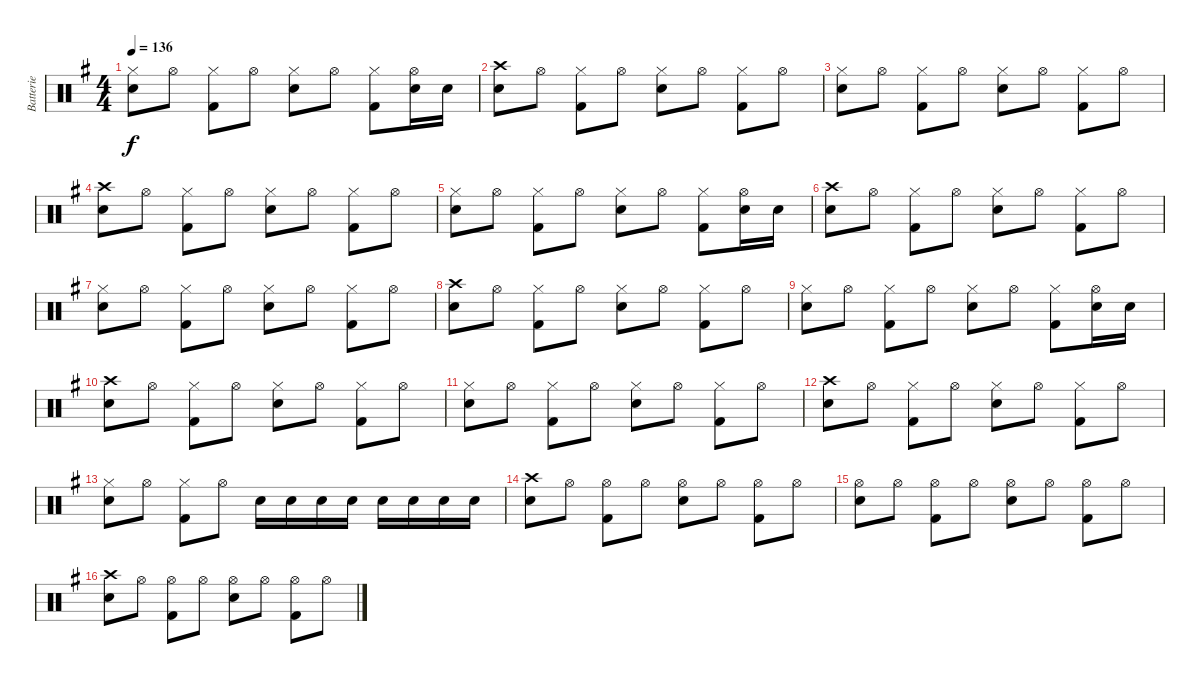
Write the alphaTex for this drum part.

\track ("Batterie" "Batterie") {instrument percussion}
\staff {score}
\articulation defaults
\ts (4 4)
\tempo 136
\clef neutral
\ks g
("Hi-Hat (closed)" "Snare (hit) 2").8{dy f} "Hi-Hat (open)".8 ("Hi-Hat (closed)" "Kick (hit) 2").8 "Hi-Hat (open)".8 ("Hi-Hat (closed)" "Snare (hit) 2").8 "Hi-Hat (open)".8 ("Hi-Hat (closed)" "Kick (hit) 2").8 ("Hi-Hat (open)" "Snare (hit) 2").16 "Snare (hit) 2".16 |
("Crash high (hit)" "Snare (hit) 2").8 "Hi-Hat (open)".8 ("Hi-Hat (closed)" "Kick (hit) 2").8 "Hi-Hat (open)".8 ("Hi-Hat (closed)" "Snare (hit) 2").8 "Hi-Hat (open)".8 ("Hi-Hat (closed)" "Kick (hit) 2").8 "Hi-Hat (open)".8 |
("Hi-Hat (closed)" "Snare (hit) 2").8 "Hi-Hat (open)".8 ("Hi-Hat (closed)" "Kick (hit) 2").8 "Hi-Hat (open)".8 ("Hi-Hat (closed)" "Snare (hit) 2").8 "Hi-Hat (open)".8 ("Hi-Hat (closed)" "Kick (hit) 2").8 "Hi-Hat (open)".8 |
("Crash high (hit)" "Snare (hit) 2").8 "Hi-Hat (open)".8 ("Hi-Hat (closed)" "Kick (hit) 2").8 "Hi-Hat (open)".8 ("Hi-Hat (closed)" "Snare (hit) 2").8 "Hi-Hat (open)".8 ("Hi-Hat (closed)" "Kick (hit) 2").8 "Hi-Hat (open)".8 |
("Hi-Hat (closed)" "Snare (hit) 2").8 "Hi-Hat (open)".8 ("Hi-Hat (closed)" "Kick (hit) 2").8 "Hi-Hat (open)".8 ("Hi-Hat (closed)" "Snare (hit) 2").8 "Hi-Hat (open)".8 ("Hi-Hat (closed)" "Kick (hit) 2").8 ("Hi-Hat (open)" "Snare (hit) 2").16 "Snare (hit) 2".16 |
("Crash high (hit)" "Snare (hit) 2").8 "Hi-Hat (open)".8 ("Hi-Hat (closed)" "Kick (hit) 2").8 "Hi-Hat (open)".8 ("Hi-Hat (closed)" "Snare (hit) 2").8 "Hi-Hat (open)".8 ("Hi-Hat (closed)" "Kick (hit) 2").8 "Hi-Hat (open)".8 |
("Hi-Hat (closed)" "Snare (hit) 2").8 "Hi-Hat (open)".8 ("Hi-Hat (closed)" "Kick (hit) 2").8 "Hi-Hat (open)".8 ("Hi-Hat (closed)" "Snare (hit) 2").8 "Hi-Hat (open)".8 ("Hi-Hat (closed)" "Kick (hit) 2").8 "Hi-Hat (open)".8 |
("Crash high (hit)" "Snare (hit) 2").8 "Hi-Hat (open)".8 ("Hi-Hat (closed)" "Kick (hit) 2").8 "Hi-Hat (open)".8 ("Hi-Hat (closed)" "Snare (hit) 2").8 "Hi-Hat (open)".8 ("Hi-Hat (closed)" "Kick (hit) 2").8 "Hi-Hat (open)".8 |
("Hi-Hat (closed)" "Snare (hit) 2").8 "Hi-Hat (open)".8 ("Hi-Hat (closed)" "Kick (hit) 2").8 "Hi-Hat (open)".8 ("Hi-Hat (closed)" "Snare (hit) 2").8 "Hi-Hat (open)".8 ("Hi-Hat (closed)" "Kick (hit) 2").8 ("Hi-Hat (open)" "Snare (hit) 2").16 "Snare (hit) 2".16 |
("Crash high (hit)" "Snare (hit) 2").8 "Hi-Hat (open)".8 ("Hi-Hat (closed)" "Kick (hit) 2").8 "Hi-Hat (open)".8 ("Hi-Hat (closed)" "Snare (hit) 2").8 "Hi-Hat (open)".8 ("Hi-Hat (closed)" "Kick (hit) 2").8 "Hi-Hat (open)".8 |
("Hi-Hat (closed)" "Snare (hit) 2").8 "Hi-Hat (open)".8 ("Hi-Hat (closed)" "Kick (hit) 2").8 "Hi-Hat (open)".8 ("Hi-Hat (closed)" "Snare (hit) 2").8 "Hi-Hat (open)".8 ("Hi-Hat (closed)" "Kick (hit) 2").8 "Hi-Hat (open)".8 |
("Crash high (hit)" "Snare (hit) 2").8 "Hi-Hat (open)".8 ("Hi-Hat (closed)" "Kick (hit) 2").8 "Hi-Hat (open)".8 ("Hi-Hat (closed)" "Snare (hit) 2").8 "Hi-Hat (open)".8 ("Hi-Hat (closed)" "Kick (hit) 2").8 "Hi-Hat (open)".8 |
("Hi-Hat (closed)" "Snare (hit) 2").8 "Hi-Hat (open)".8 ("Hi-Hat (closed)" "Kick (hit) 2").8 "Hi-Hat (open)".8 "Snare (hit) 2".16 "Snare (hit) 2".16 "Snare (hit) 2".16 "Snare (hit) 2".16 "Snare (hit) 2".16 "Snare (hit) 2".16 "Snare (hit) 2".16 "Snare (hit) 2".16 |
("Crash high (hit)" "Snare (hit) 2").8 "Hi-Hat (open)".8 ("Hi-Hat (open)" "Kick (hit) 2").8 "Hi-Hat (open)".8 ("Hi-Hat (open)" "Snare (hit) 2").8 "Hi-Hat (open)".8 ("Hi-Hat (open)" "Kick (hit) 2").8 "Hi-Hat (open)".8 |
("Hi-Hat (open)" "Snare (hit) 2").8 "Hi-Hat (open)".8 ("Hi-Hat (open)" "Kick (hit) 2").8 "Hi-Hat (open)".8 ("Hi-Hat (open)" "Snare (hit) 2").8 "Hi-Hat (open)".8 ("Hi-Hat (open)" "Kick (hit) 2").8 "Hi-Hat (open)".8 |
("Crash high (hit)" "Snare (hit) 2").8 "Hi-Hat (open)".8 ("Hi-Hat (open)" "Kick (hit) 2").8 "Hi-Hat (open)".8 ("Hi-Hat (open)" "Snare (hit) 2").8 "Hi-Hat (open)".8 ("Hi-Hat (open)" "Kick (hit) 2").8 "Hi-Hat (open)".8
